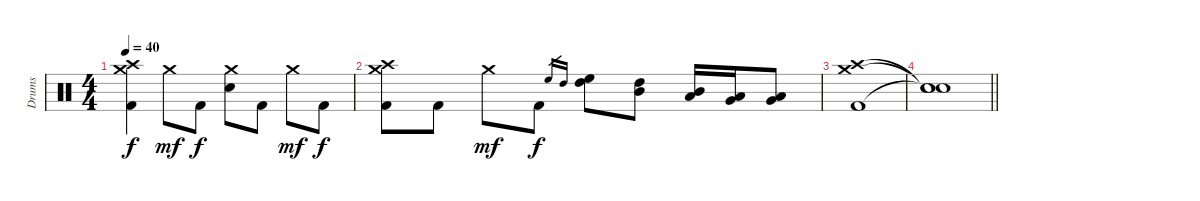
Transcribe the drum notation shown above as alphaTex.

\track ("Drums" "Drums") {instrument percussion}
\staff {score}
\articulation defaults
\ts (4 4)
\tempo 40
\clef neutral
\ks c
("Crash medium (hit)" "Crash high (hit)" "Kick (hit) 2").4{dy f} "Crash medium (hit)".8{dy mf} "Kick (hit) 2".8{dy f} ("Crash medium (hit)" "Electric Snare (hit)").8 "Kick (hit) 2".8 "Crash medium (hit)".8{dy mf} "Kick (hit) 2".8{dy f} |
("Crash medium (hit)" "Crash high (hit)" "Kick (hit) 2").8 "Kick (hit) 2".8 "Crash medium (hit)".8{dy mf} "Kick (hit) 2".8{dy f} "High Floor Tom (hit)".16{gr} "High Tom (hit)".16{gr} ("High Floor Tom (hit)" "High Tom (hit)").8 ("High Tom (hit)" "Mid Tom (hit)").8 ("Mid Tom (hit)" "Low Tom (hit)").16 ("Low Tom (hit)" "Very Low Tom (hit)").16 ("Very Low Tom (hit)" "Low Floor Tom (hit)").8 |
("Crash high (hit)" "Crash medium (hit)" "Kick (hit) 2").1{volume 0} |
\barLineRight lightlight
("Snare (hit)"{t} "Snare (hit)"{t} "Snare (hit)"{t}).1
